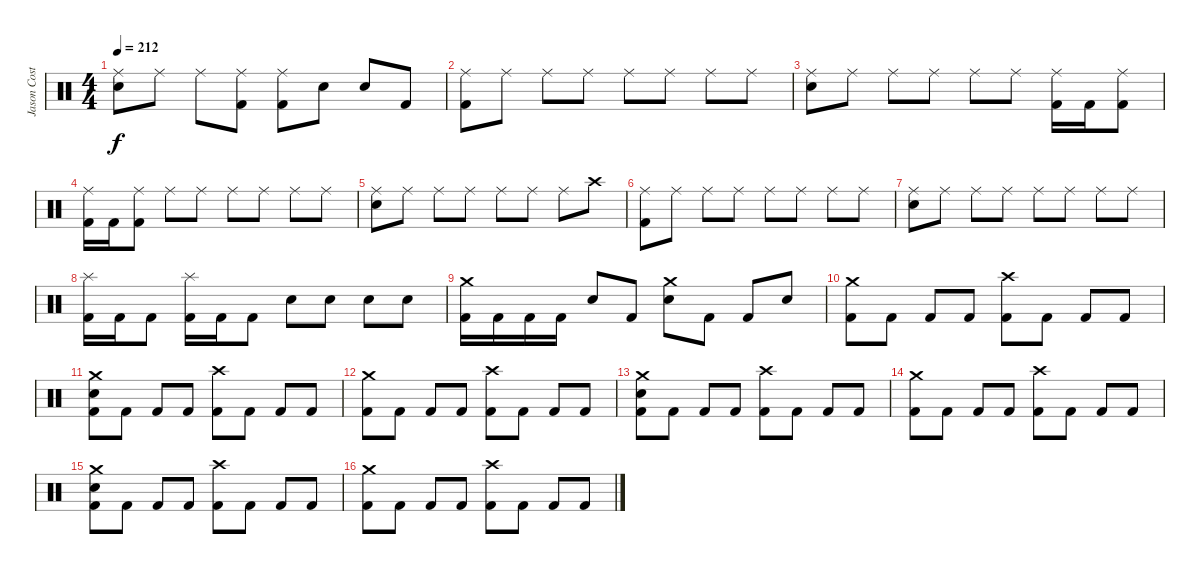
\track ("Jason Costa" "Jason Cost") {instrument percussion}
\staff {score}
\articulation defaults
\ts (4 4)
\tempo 212
\clef neutral
\ks c
("Ride (middle)" "Electric Snare (hit)").8{dy f} "Ride (middle)".8 "Ride (middle)".8 ("Ride (middle)" "Kick (hit) 2").8 ("Ride (middle)" "Kick (hit) 2").8 "Electric Snare (hit)".8 "Electric Snare (hit)".8 "Kick (hit) 2".8 |
("Ride (middle)" "Kick (hit) 2").8 "Ride (middle)".8 "Ride (middle)".8 "Ride (middle)".8 "Ride (middle)".8 "Ride (middle)".8 "Ride (middle)".8 "Ride (middle)".8 |
("Ride (middle)" "Electric Snare (hit)").8 "Ride (middle)".8 "Ride (middle)".8 "Ride (middle)".8 "Ride (middle)".8 "Ride (middle)".8 ("Ride (middle)" "Kick (hit) 2").16 "Kick (hit) 2".16 ("Ride (middle)" "Kick (hit) 2").8 |
("Ride (middle)" "Kick (hit) 2").16 "Kick (hit) 2".16 ("Ride (middle)" "Kick (hit) 2").8 "Ride (middle)".8 "Ride (middle)".8 "Ride (middle)".8 "Ride (middle)".8 "Ride (middle)".8 "Ride (middle)".8 |
("Ride (middle)" "Electric Snare (hit)").8 "Ride (middle)".8 "Ride (middle)".8 "Ride (middle)".8 "Ride (middle)".8 "Ride (middle)".8 "Ride (middle)".8 "Crash high (hit)".8 |
("Ride (middle)" "Kick (hit) 2").8 "Ride (middle)".8 "Ride (middle)".8 "Ride (middle)".8 "Ride (middle)".8 "Ride (middle)".8 "Ride (middle)".8 "Ride (middle)".8 |
("Ride (middle)" "Electric Snare (hit)").8 "Ride (middle)".8 "Ride (middle)".8 "Ride (middle)".8 "Ride (middle)".8 "Ride (middle)".8 "Ride (middle)".8 "Ride (middle)".8 |
("Splash (hit)" "Kick (hit) 2").16 "Kick (hit) 2".16 "Kick (hit) 2".8 ("Splash (hit)" "Kick (hit) 2").16 "Kick (hit) 2".16 "Kick (hit) 2".8 "Electric Snare (hit)".8 "Electric Snare (hit)".8 "Electric Snare (hit)".8 "Electric Snare (hit)".8 |
("Crash medium (hit)" "Kick (hit) 2").16 "Kick (hit) 2".16 "Kick (hit) 2".16 "Kick (hit) 2".16 "Electric Snare (hit)".8 "Kick (hit) 2".8 ("Crash medium (hit)" "Electric Snare (hit)").8 "Kick (hit) 2".8 "Kick (hit) 2".8 "Electric Snare (hit)".8 |
("Crash medium (hit)" "Kick (hit) 2").8 "Kick (hit) 2".8 "Kick (hit) 2".8 "Kick (hit) 2".8 ("Crash high (hit)" "Kick (hit) 2").8 "Kick (hit) 2".8 "Kick (hit) 2".8 "Kick (hit) 2".8 |
("Crash medium (hit)" "Electric Snare (hit)" "Kick (hit) 2").8 "Kick (hit) 2".8 "Kick (hit) 2".8 "Kick (hit) 2".8 ("Crash high (hit)" "Kick (hit) 2").8 "Kick (hit) 2".8 "Kick (hit) 2".8 "Kick (hit) 2".8 |
("Crash medium (hit)" "Kick (hit) 2").8 "Kick (hit) 2".8 "Kick (hit) 2".8 "Kick (hit) 2".8 ("Crash high (hit)" "Kick (hit) 2").8 "Kick (hit) 2".8 "Kick (hit) 2".8 "Kick (hit) 2".8 |
("Crash medium (hit)" "Electric Snare (hit)" "Kick (hit) 2").8 "Kick (hit) 2".8 "Kick (hit) 2".8 "Kick (hit) 2".8 ("Crash high (hit)" "Kick (hit) 2").8 "Kick (hit) 2".8 "Kick (hit) 2".8 "Kick (hit) 2".8 |
("Crash medium (hit)" "Kick (hit) 2").8 "Kick (hit) 2".8 "Kick (hit) 2".8 "Kick (hit) 2".8 ("Crash high (hit)" "Kick (hit) 2").8 "Kick (hit) 2".8 "Kick (hit) 2".8 "Kick (hit) 2".8 |
("Crash medium (hit)" "Electric Snare (hit)" "Kick (hit) 2").8 "Kick (hit) 2".8 "Kick (hit) 2".8 "Kick (hit) 2".8 ("Crash high (hit)" "Kick (hit) 2").8 "Kick (hit) 2".8 "Kick (hit) 2".8 "Kick (hit) 2".8 |
("Crash medium (hit)" "Kick (hit) 2").8 "Kick (hit) 2".8 "Kick (hit) 2".8 "Kick (hit) 2".8 ("Crash high (hit)" "Kick (hit) 2").8 "Kick (hit) 2".8 "Kick (hit) 2".8 "Kick (hit) 2".8
